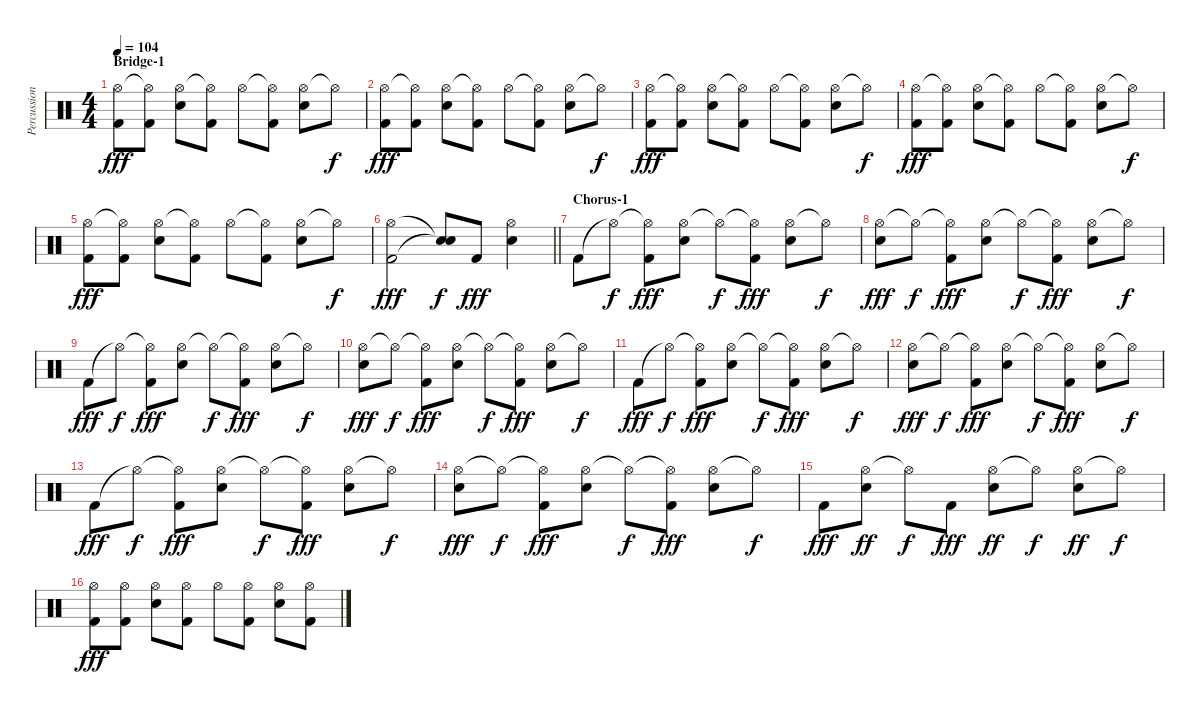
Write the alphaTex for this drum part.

\track ("Percussion" "Percussion") {instrument percussion}
\staff {score}
\articulation defaults
\ts (4 4)
\section ("" "Bridge-1")
\tempo 104
\clef neutral
\ks c
("Hi-Hat (open)" "Kick (hit) 2").8{dy fff} ("Hi-Hat (open)"{t} "Kick (hit) 2").8 ("Hi-Hat (open)" "Electric Snare (hit)").8 ("Hi-Hat (open)"{t} "Kick (hit) 2").8 "Hi-Hat (open)".8 ("Hi-Hat (open)"{t} "Kick (hit) 2").8 ("Hi-Hat (open)" "Electric Snare (hit)").8 "Hi-Hat (open)"{t}.8{dy f} |
("Hi-Hat (open)" "Kick (hit) 2").8{dy fff} ("Hi-Hat (open)"{t} "Kick (hit) 2").8 ("Hi-Hat (open)" "Electric Snare (hit)").8 ("Hi-Hat (open)"{t} "Kick (hit) 2").8 "Hi-Hat (open)".8 ("Hi-Hat (open)"{t} "Kick (hit) 2").8 ("Hi-Hat (open)" "Electric Snare (hit)").8 "Hi-Hat (open)"{t}.8{dy f} |
("Hi-Hat (open)" "Kick (hit) 2").8{dy fff} ("Hi-Hat (open)"{t} "Kick (hit) 2").8 ("Hi-Hat (open)" "Electric Snare (hit)").8 ("Hi-Hat (open)"{t} "Kick (hit) 2").8 "Hi-Hat (open)".8 ("Hi-Hat (open)"{t} "Kick (hit) 2").8 ("Hi-Hat (open)" "Electric Snare (hit)").8 "Hi-Hat (open)"{t}.8{dy f} |
("Hi-Hat (open)" "Kick (hit) 2").8{dy fff} ("Hi-Hat (open)"{t} "Kick (hit) 2").8 ("Hi-Hat (open)" "Electric Snare (hit)").8 ("Hi-Hat (open)"{t} "Kick (hit) 2").8 "Hi-Hat (open)".8 ("Hi-Hat (open)"{t} "Kick (hit) 2").8 ("Hi-Hat (open)" "Electric Snare (hit)").8 "Hi-Hat (open)"{t}.8{dy f} |
("Hi-Hat (open)" "Kick (hit) 2").8{dy fff} ("Hi-Hat (open)"{t} "Kick (hit) 2").8 ("Hi-Hat (open)" "Electric Snare (hit)").8 ("Hi-Hat (open)"{t} "Kick (hit) 2").8 "Hi-Hat (open)".8 ("Hi-Hat (open)"{t} "Kick (hit) 2").8 ("Hi-Hat (open)" "Electric Snare (hit)").8 "Hi-Hat (open)"{t}.8{dy f} |
\barLineRight lightlight
("Hi-Hat (open)" "Kick (hit) 2").2{dy fff} ("Snare (hit)"{t} "Snare (hit)"{t}).8{dy f} "Kick (hit) 2".8{dy fff} ("Hi-Hat (open)" "Electric Snare (hit)").4 |
\section ("" "Chorus-1")
"Kick (hit) 2".8 "Hi-Hat (open)"{t}.8{dy f} ("Hi-Hat (open)"{t} "Kick (hit) 2").8{dy fff} ("Hi-Hat (open)" "Electric Snare (hit)").8 "Hi-Hat (open)"{t}.8{dy f} ("Hi-Hat (open)"{t} "Kick (hit) 2").8{dy fff} ("Hi-Hat (open)" "Electric Snare (hit)").8 "Hi-Hat (open)"{t}.8{dy f} |
("Hi-Hat (open)" "Electric Snare (hit)").8{dy fff} "Hi-Hat (open)"{t}.8{dy f} ("Hi-Hat (open)"{t} "Kick (hit) 2").8{dy fff} ("Hi-Hat (open)" "Electric Snare (hit)").8 "Hi-Hat (open)"{t}.8{dy f} ("Hi-Hat (open)"{t} "Kick (hit) 2").8{dy fff} ("Hi-Hat (open)" "Electric Snare (hit)").8 "Hi-Hat (open)"{t}.8{dy f} |
"Kick (hit) 2".8{dy fff} "Hi-Hat (open)"{t}.8{dy f} ("Hi-Hat (open)"{t} "Kick (hit) 2").8{dy fff} ("Hi-Hat (open)" "Electric Snare (hit)").8 "Hi-Hat (open)"{t}.8{dy f} ("Hi-Hat (open)"{t} "Kick (hit) 2").8{dy fff} ("Hi-Hat (open)" "Electric Snare (hit)").8 "Hi-Hat (open)"{t}.8{dy f} |
("Hi-Hat (open)" "Electric Snare (hit)").8{dy fff} "Hi-Hat (open)"{t}.8{dy f} ("Hi-Hat (open)"{t} "Kick (hit) 2").8{dy fff} ("Hi-Hat (open)" "Electric Snare (hit)").8 "Hi-Hat (open)"{t}.8{dy f} ("Hi-Hat (open)"{t} "Kick (hit) 2").8{dy fff} ("Hi-Hat (open)" "Electric Snare (hit)").8 "Hi-Hat (open)"{t}.8{dy f} |
"Kick (hit) 2".8{dy fff} "Hi-Hat (open)"{t}.8{dy f} ("Hi-Hat (open)"{t} "Kick (hit) 2").8{dy fff} ("Hi-Hat (open)" "Electric Snare (hit)").8 "Hi-Hat (open)"{t}.8{dy f} ("Hi-Hat (open)"{t} "Kick (hit) 2").8{dy fff} ("Hi-Hat (open)" "Electric Snare (hit)").8 "Hi-Hat (open)"{t}.8{dy f} |
("Hi-Hat (open)" "Electric Snare (hit)").8{dy fff} "Hi-Hat (open)"{t}.8{dy f} ("Hi-Hat (open)"{t} "Kick (hit) 2").8{dy fff} ("Hi-Hat (open)" "Electric Snare (hit)").8 "Hi-Hat (open)"{t}.8{dy f} ("Hi-Hat (open)"{t} "Kick (hit) 2").8{dy fff} ("Hi-Hat (open)" "Electric Snare (hit)").8 "Hi-Hat (open)"{t}.8{dy f} |
"Kick (hit) 2".8{dy fff} "Hi-Hat (open)"{t}.8{dy f} ("Hi-Hat (open)"{t} "Kick (hit) 2").8{dy fff} ("Hi-Hat (open)" "Electric Snare (hit)").8 "Hi-Hat (open)"{t}.8{dy f} ("Hi-Hat (open)"{t} "Kick (hit) 2").8{dy fff} ("Hi-Hat (open)" "Electric Snare (hit)").8 "Hi-Hat (open)"{t}.8{dy f} |
("Hi-Hat (open)" "Electric Snare (hit)").8{dy fff} "Hi-Hat (open)"{t}.8{dy f} ("Hi-Hat (open)"{t} "Kick (hit) 2").8{dy fff} ("Hi-Hat (open)" "Electric Snare (hit)").8 "Hi-Hat (open)"{t}.8{dy f} ("Hi-Hat (open)"{t} "Kick (hit) 2").8{dy fff} ("Hi-Hat (open)" "Electric Snare (hit)").8 "Hi-Hat (open)"{t}.8{dy f} |
"Kick (hit) 2".8{dy fff} ("Hi-Hat (open)" "Electric Snare (hit)").8{dy ff} "Hi-Hat (open)"{t}.8{dy f} "Kick (hit) 2".8{dy fff} ("Hi-Hat (open)" "Electric Snare (hit)").8{dy ff} "Hi-Hat (open)"{t}.8{dy f} ("Hi-Hat (open)" "Electric Snare (hit)").8{dy ff} "Hi-Hat (open)"{t}.8{dy f} |
("Hi-Hat (open)" "Kick (hit) 2").8{dy fff} ("Hi-Hat (open)" "Kick (hit) 2").8 ("Hi-Hat (open)" "Electric Snare (hit)").8 ("Hi-Hat (open)" "Kick (hit) 2").8 "Hi-Hat (open)".8 ("Hi-Hat (open)" "Kick (hit) 2").8 ("Hi-Hat (open)" "Electric Snare (hit)").8 ("Hi-Hat (open)" "Kick (hit) 2").8
